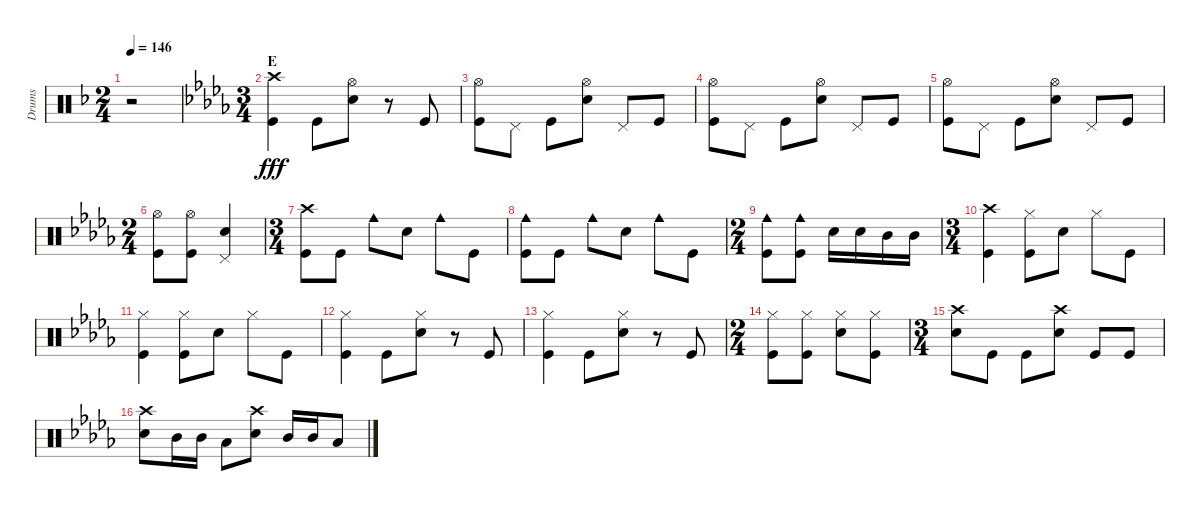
\track ("Drums" "Drums") {instrument percussion}
\staff {score}
\articulation defaults
\ts (2 4)
\tempo 146
\clef neutral
\ks f
r.2{dy fff} |
\ts (3 4)
\section ("" "E")
\ks db
("Crash high (hit)" "Kick (hit)").4 "Kick (hit)".8 ("Hi-Hat (open)" "Snare (hit) 2").8 r.8 "Kick (hit)".8 |
("Hi-Hat (open)" "Kick (hit)").8 "Pedal Hi-Hat (hit)".8 "Kick (hit)".8 ("Hi-Hat (open)" "Snare (hit) 2").8 "Pedal Hi-Hat (hit)".8 "Kick (hit)".8 |
("Hi-Hat (open)" "Kick (hit)").8 "Pedal Hi-Hat (hit)".8 "Kick (hit)".8 ("Hi-Hat (open)" "Snare (hit) 2").8 "Pedal Hi-Hat (hit)".8 "Kick (hit)".8 |
("Hi-Hat (open)" "Kick (hit)").8 "Pedal Hi-Hat (hit)".8 "Kick (hit)".8 ("Hi-Hat (open)" "Snare (hit) 2").8 "Pedal Hi-Hat (hit)".8 "Kick (hit)".8 |
\ts (2 4)
("Hi-Hat (open)" "Kick (hit)").8 ("Hi-Hat (open)" "Kick (hit)").8 ("Pedal Hi-Hat (hit)" "Snare (hit) 2").4 |
\ts (3 4)
("Crash high (hit)" "Kick (hit)").8 "Kick (hit)".8 "Cowbell medium (hit)".8 "Snare (hit) 2".8 "Cowbell medium (hit)".8 "Kick (hit)".8 |
("Cowbell medium (hit)" "Kick (hit)").8 "Kick (hit)".8 "Cowbell medium (hit)".8 "Snare (hit) 2".8 "Cowbell medium (hit)".8 "Kick (hit)".8 |
\ts (2 4)
("Cowbell medium (hit)" "Kick (hit)").8 ("Cowbell medium (hit)" "Kick (hit)").8 "Snare (hit) 2".16 "Snare (hit) 2".16 "Mid Tom (hit)".16 "Mid Tom (hit)".16 |
\ts (3 4)
("Crash high (hit)" "Kick (hit)").4 ("Hi-Hat (closed)" "Kick (hit)").8 "Snare (hit) 2".8 "Hi-Hat (closed)".8 "Kick (hit)".8 |
("Hi-Hat (closed)" "Kick (hit)").4 ("Hi-Hat (closed)" "Kick (hit)").8 "Snare (hit) 2".8 "Hi-Hat (closed)".8 "Kick (hit)".8 |
("Hi-Hat (closed)" "Kick (hit)").4 "Kick (hit)".8 ("Hi-Hat (closed)" "Snare (hit) 2").8 r.8 "Kick (hit)".8 |
("Hi-Hat (closed)" "Kick (hit)").4 "Kick (hit)".8 ("Hi-Hat (closed)" "Snare (hit) 2").8 r.8 "Kick (hit)".8 |
\ts (2 4)
("Hi-Hat (closed)" "Kick (hit)").8 ("Hi-Hat (closed)" "Kick (hit)").8 ("Hi-Hat (closed)" "Snare (hit) 2").8 ("Hi-Hat (closed)" "Kick (hit)").8 |
\ts (3 4)
("Crash high (hit)" "Snare (hit) 2").8 "Kick (hit)".8 "Kick (hit)".8 ("Crash high (hit)" "Snare (hit) 2").8 "Kick (hit)".8 "Kick (hit)".8 |
("Crash high (hit)" "Snare (hit) 2").8 "Mid Tom (hit)".16 "Mid Tom (hit)".16 "Low Tom (hit)".8 ("Crash high (hit)" "Snare (hit) 2").8 "Mid Tom (hit)".16 "Mid Tom (hit)".16 "Low Tom (hit)".8
